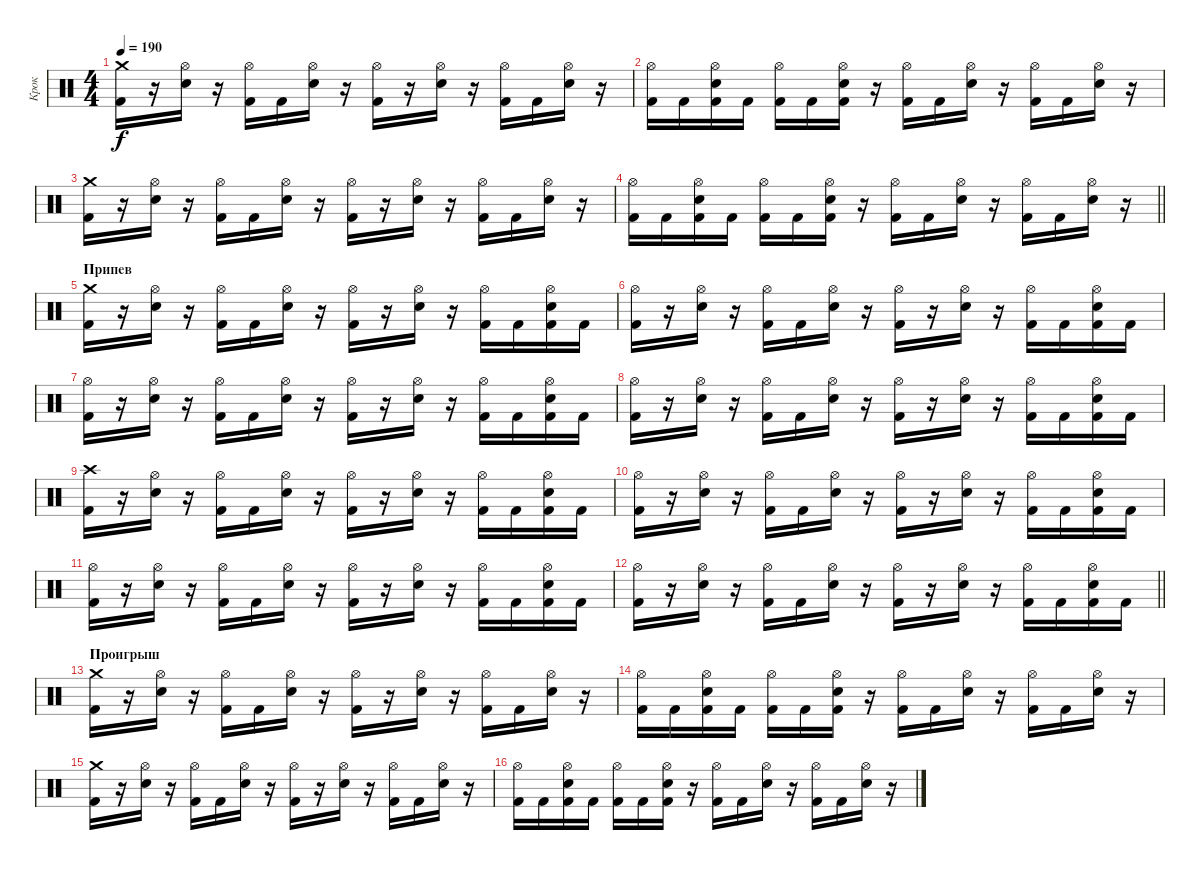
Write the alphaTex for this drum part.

\track ("Крок" "Крок") {instrument percussion}
\staff {score}
\articulation defaults
\ts (4 4)
\tempo 190
\clef neutral
\ks c
("Crash medium (hit)" "Kick (hit) 2").16{dy f} r.16 ("Hi-Hat (open)" "Electric Snare (hit)").16 r.16 ("Hi-Hat (open)" "Kick (hit) 2").16 "Kick (hit) 2".16 ("Hi-Hat (open)" "Electric Snare (hit)").16 r.16 ("Hi-Hat (open)" "Kick (hit) 2").16 r.16 ("Hi-Hat (open)" "Electric Snare (hit)").16 r.16 ("Hi-Hat (open)" "Kick (hit) 2").16 "Kick (hit) 2".16 ("Hi-Hat (open)" "Electric Snare (hit)").16 r.16 |
("Hi-Hat (open)" "Kick (hit) 2").16 "Kick (hit) 2".16 ("Hi-Hat (open)" "Electric Snare (hit)" "Kick (hit) 2").16 "Kick (hit) 2".16 ("Hi-Hat (open)" "Kick (hit) 2").16 "Kick (hit) 2".16 ("Hi-Hat (open)" "Electric Snare (hit)" "Kick (hit) 2").16 r.16 ("Hi-Hat (open)" "Kick (hit) 2").16 "Kick (hit) 2".16 ("Hi-Hat (open)" "Electric Snare (hit)").16 r.16 ("Hi-Hat (open)" "Kick (hit) 2").16 "Kick (hit) 2".16 ("Hi-Hat (open)" "Electric Snare (hit)").16 r.16 |
("Crash medium (hit)" "Kick (hit) 2").16 r.16 ("Hi-Hat (open)" "Electric Snare (hit)").16 r.16 ("Hi-Hat (open)" "Kick (hit) 2").16 "Kick (hit) 2".16 ("Hi-Hat (open)" "Electric Snare (hit)").16 r.16 ("Hi-Hat (open)" "Kick (hit) 2").16 r.16 ("Hi-Hat (open)" "Electric Snare (hit)").16 r.16 ("Hi-Hat (open)" "Kick (hit) 2").16 "Kick (hit) 2".16 ("Hi-Hat (open)" "Electric Snare (hit)").16 r.16 |
\barLineRight lightlight
("Hi-Hat (open)" "Kick (hit) 2").16 "Kick (hit) 2".16 ("Hi-Hat (open)" "Electric Snare (hit)" "Kick (hit) 2").16 "Kick (hit) 2".16 ("Hi-Hat (open)" "Kick (hit) 2").16 "Kick (hit) 2".16 ("Hi-Hat (open)" "Electric Snare (hit)" "Kick (hit) 2").16 r.16 ("Hi-Hat (open)" "Kick (hit) 2").16 "Kick (hit) 2".16 ("Hi-Hat (open)" "Electric Snare (hit)").16 r.16 ("Hi-Hat (open)" "Kick (hit) 2").16 "Kick (hit) 2".16 ("Hi-Hat (open)" "Electric Snare (hit)").16 r.16 |
\section ("" "Припев")
("Crash medium (hit)" "Kick (hit) 2").16 r.16 ("Hi-Hat (open)" "Electric Snare (hit)").16 r.16 ("Hi-Hat (open)" "Kick (hit) 2").16 "Kick (hit) 2".16 ("Hi-Hat (open)" "Electric Snare (hit)").16 r.16 ("Hi-Hat (open)" "Kick (hit) 2").16 r.16 ("Hi-Hat (open)" "Electric Snare (hit)").16 r.16 ("Hi-Hat (open)" "Kick (hit) 2").16 "Kick (hit) 2".16 ("Hi-Hat (open)" "Electric Snare (hit)" "Kick (hit) 2").16 "Kick (hit) 2".16 |
("Hi-Hat (open)" "Kick (hit) 2").16 r.16 ("Hi-Hat (open)" "Electric Snare (hit)").16 r.16 ("Hi-Hat (open)" "Kick (hit) 2").16 "Kick (hit) 2".16 ("Hi-Hat (open)" "Electric Snare (hit)").16 r.16 ("Hi-Hat (open)" "Kick (hit) 2").16 r.16 ("Hi-Hat (open)" "Electric Snare (hit)").16 r.16 ("Hi-Hat (open)" "Kick (hit) 2").16 "Kick (hit) 2".16 ("Hi-Hat (open)" "Electric Snare (hit)" "Kick (hit) 2").16 "Kick (hit) 2".16 |
("Hi-Hat (open)" "Kick (hit) 2").16 r.16 ("Hi-Hat (open)" "Electric Snare (hit)").16 r.16 ("Hi-Hat (open)" "Kick (hit) 2").16 "Kick (hit) 2".16 ("Hi-Hat (open)" "Electric Snare (hit)").16 r.16 ("Hi-Hat (open)" "Kick (hit) 2").16 r.16 ("Hi-Hat (open)" "Electric Snare (hit)").16 r.16 ("Hi-Hat (open)" "Kick (hit) 2").16 "Kick (hit) 2".16 ("Hi-Hat (open)" "Electric Snare (hit)" "Kick (hit) 2").16 "Kick (hit) 2".16 |
("Hi-Hat (open)" "Kick (hit) 2").16 r.16 ("Hi-Hat (open)" "Electric Snare (hit)").16 r.16 ("Hi-Hat (open)" "Kick (hit) 2").16 "Kick (hit) 2".16 ("Hi-Hat (open)" "Electric Snare (hit)").16 r.16 ("Hi-Hat (open)" "Kick (hit) 2").16 r.16 ("Hi-Hat (open)" "Electric Snare (hit)").16 r.16 ("Hi-Hat (open)" "Kick (hit) 2").16 "Kick (hit) 2".16 ("Hi-Hat (open)" "Electric Snare (hit)" "Kick (hit) 2").16 "Kick (hit) 2".16 |
("Crash high (hit)" "Kick (hit) 2").16 r.16 ("Hi-Hat (open)" "Electric Snare (hit)").16 r.16 ("Hi-Hat (open)" "Kick (hit) 2").16 "Kick (hit) 2".16 ("Hi-Hat (open)" "Electric Snare (hit)").16 r.16 ("Hi-Hat (open)" "Kick (hit) 2").16 r.16 ("Hi-Hat (open)" "Electric Snare (hit)").16 r.16 ("Hi-Hat (open)" "Kick (hit) 2").16 "Kick (hit) 2".16 ("Hi-Hat (open)" "Electric Snare (hit)" "Kick (hit) 2").16 "Kick (hit) 2".16 |
("Hi-Hat (open)" "Kick (hit) 2").16 r.16 ("Hi-Hat (open)" "Electric Snare (hit)").16 r.16 ("Hi-Hat (open)" "Kick (hit) 2").16 "Kick (hit) 2".16 ("Hi-Hat (open)" "Electric Snare (hit)").16 r.16 ("Hi-Hat (open)" "Kick (hit) 2").16 r.16 ("Hi-Hat (open)" "Electric Snare (hit)").16 r.16 ("Hi-Hat (open)" "Kick (hit) 2").16 "Kick (hit) 2".16 ("Hi-Hat (open)" "Electric Snare (hit)" "Kick (hit) 2").16 "Kick (hit) 2".16 |
("Hi-Hat (open)" "Kick (hit) 2").16 r.16 ("Hi-Hat (open)" "Electric Snare (hit)").16 r.16 ("Hi-Hat (open)" "Kick (hit) 2").16 "Kick (hit) 2".16 ("Hi-Hat (open)" "Electric Snare (hit)").16 r.16 ("Hi-Hat (open)" "Kick (hit) 2").16 r.16 ("Hi-Hat (open)" "Electric Snare (hit)").16 r.16 ("Hi-Hat (open)" "Kick (hit) 2").16 "Kick (hit) 2".16 ("Hi-Hat (open)" "Electric Snare (hit)" "Kick (hit) 2").16 "Kick (hit) 2".16 |
\barLineRight lightlight
("Hi-Hat (open)" "Kick (hit) 2").16 r.16 ("Hi-Hat (open)" "Electric Snare (hit)").16 r.16 ("Hi-Hat (open)" "Kick (hit) 2").16 "Kick (hit) 2".16 ("Hi-Hat (open)" "Electric Snare (hit)").16 r.16 ("Hi-Hat (open)" "Kick (hit) 2").16 r.16 ("Hi-Hat (open)" "Electric Snare (hit)").16 r.16 ("Hi-Hat (open)" "Kick (hit) 2").16 "Kick (hit) 2".16 ("Hi-Hat (open)" "Electric Snare (hit)" "Kick (hit) 2").16 "Kick (hit) 2".16 |
\section ("" "Проигрыш")
("Crash medium (hit)" "Kick (hit) 2").16 r.16 ("Hi-Hat (open)" "Electric Snare (hit)").16 r.16 ("Hi-Hat (open)" "Kick (hit) 2").16 "Kick (hit) 2".16 ("Hi-Hat (open)" "Electric Snare (hit)").16 r.16 ("Hi-Hat (open)" "Kick (hit) 2").16 r.16 ("Hi-Hat (open)" "Electric Snare (hit)").16 r.16 ("Hi-Hat (open)" "Kick (hit) 2").16 "Kick (hit) 2".16 ("Hi-Hat (open)" "Electric Snare (hit)").16 r.16 |
("Hi-Hat (open)" "Kick (hit) 2").16 "Kick (hit) 2".16 ("Hi-Hat (open)" "Electric Snare (hit)" "Kick (hit) 2").16 "Kick (hit) 2".16 ("Hi-Hat (open)" "Kick (hit) 2").16 "Kick (hit) 2".16 ("Hi-Hat (open)" "Electric Snare (hit)" "Kick (hit) 2").16 r.16 ("Hi-Hat (open)" "Kick (hit) 2").16 "Kick (hit) 2".16 ("Hi-Hat (open)" "Electric Snare (hit)").16 r.16 ("Hi-Hat (open)" "Kick (hit) 2").16 "Kick (hit) 2".16 ("Hi-Hat (open)" "Electric Snare (hit)").16 r.16 |
("Crash medium (hit)" "Kick (hit) 2").16 r.16 ("Hi-Hat (open)" "Electric Snare (hit)").16 r.16 ("Hi-Hat (open)" "Kick (hit) 2").16 "Kick (hit) 2".16 ("Hi-Hat (open)" "Electric Snare (hit)").16 r.16 ("Hi-Hat (open)" "Kick (hit) 2").16 r.16 ("Hi-Hat (open)" "Electric Snare (hit)").16 r.16 ("Hi-Hat (open)" "Kick (hit) 2").16 "Kick (hit) 2".16 ("Hi-Hat (open)" "Electric Snare (hit)").16 r.16 |
("Hi-Hat (open)" "Kick (hit) 2").16 "Kick (hit) 2".16 ("Hi-Hat (open)" "Electric Snare (hit)" "Kick (hit) 2").16 "Kick (hit) 2".16 ("Hi-Hat (open)" "Kick (hit) 2").16 "Kick (hit) 2".16 ("Hi-Hat (open)" "Electric Snare (hit)" "Kick (hit) 2").16 r.16 ("Hi-Hat (open)" "Kick (hit) 2").16 "Kick (hit) 2".16 ("Hi-Hat (open)" "Electric Snare (hit)").16 r.16 ("Hi-Hat (open)" "Kick (hit) 2").16 "Kick (hit) 2".16 ("Hi-Hat (open)" "Electric Snare (hit)").16 r.16
